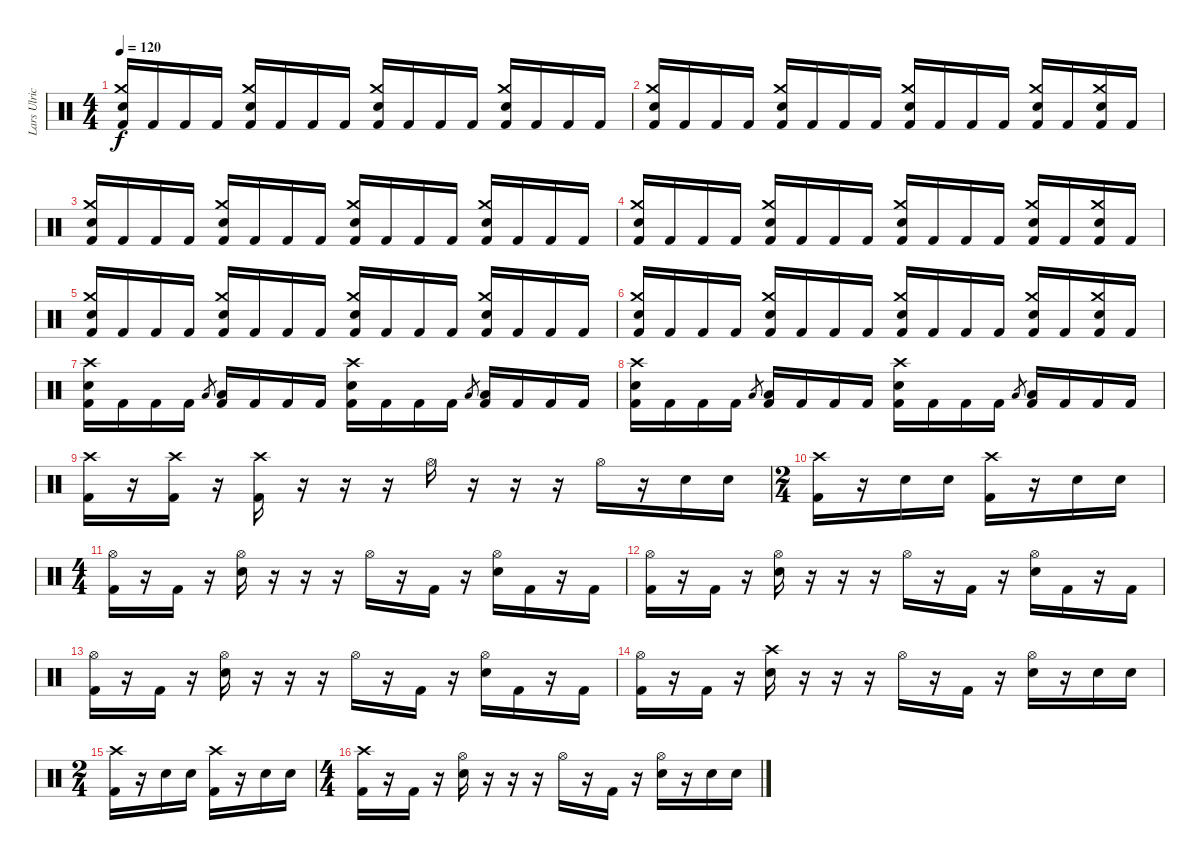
\track ("Lars Ulrich" "Lars Ulric") {instrument percussion}
\staff {score}
\articulation defaults
\ts (4 4)
\tempo 120
\clef neutral
\ks c
("Electric Snare (hit)" "Crash medium (hit)" "Kick (hit) 2").16{dy f} "Kick (hit) 2".16 "Kick (hit) 2".16 "Kick (hit) 2".16 ("Electric Snare (hit)" "Crash medium (hit)" "Kick (hit) 2").16 "Kick (hit) 2".16 "Kick (hit) 2".16 "Kick (hit) 2".16 ("Electric Snare (hit)" "Crash medium (hit)" "Kick (hit) 2").16 "Kick (hit) 2".16 "Kick (hit) 2".16 "Kick (hit) 2".16 ("Electric Snare (hit)" "Crash medium (hit)" "Kick (hit) 2").16 "Kick (hit) 2".16 "Kick (hit) 2".16 "Kick (hit) 2".16 |
("Electric Snare (hit)" "Crash medium (hit)" "Kick (hit) 2").16 "Kick (hit) 2".16 "Kick (hit) 2".16 "Kick (hit) 2".16 ("Electric Snare (hit)" "Crash medium (hit)" "Kick (hit) 2").16 "Kick (hit) 2".16 "Kick (hit) 2".16 "Kick (hit) 2".16 ("Electric Snare (hit)" "Crash medium (hit)" "Kick (hit) 2").16 "Kick (hit) 2".16 "Kick (hit) 2".16 "Kick (hit) 2".16 ("Electric Snare (hit)" "Crash medium (hit)" "Kick (hit) 2").16 "Kick (hit) 2".16 ("Electric Snare (hit)" "Crash medium (hit)" "Kick (hit) 2").16 "Kick (hit) 2".16 |
("Electric Snare (hit)" "Crash medium (hit)" "Kick (hit) 2").16 "Kick (hit) 2".16 "Kick (hit) 2".16 "Kick (hit) 2".16 ("Electric Snare (hit)" "Crash medium (hit)" "Kick (hit) 2").16 "Kick (hit) 2".16 "Kick (hit) 2".16 "Kick (hit) 2".16 ("Electric Snare (hit)" "Crash medium (hit)" "Kick (hit) 2").16 "Kick (hit) 2".16 "Kick (hit) 2".16 "Kick (hit) 2".16 ("Electric Snare (hit)" "Crash medium (hit)" "Kick (hit) 2").16 "Kick (hit) 2".16 "Kick (hit) 2".16 "Kick (hit) 2".16 |
("Electric Snare (hit)" "Crash medium (hit)" "Kick (hit) 2").16 "Kick (hit) 2".16 "Kick (hit) 2".16 "Kick (hit) 2".16 ("Electric Snare (hit)" "Crash medium (hit)" "Kick (hit) 2").16 "Kick (hit) 2".16 "Kick (hit) 2".16 "Kick (hit) 2".16 ("Electric Snare (hit)" "Crash medium (hit)" "Kick (hit) 2").16 "Kick (hit) 2".16 "Kick (hit) 2".16 "Kick (hit) 2".16 ("Electric Snare (hit)" "Crash medium (hit)" "Kick (hit) 2").16 "Kick (hit) 2".16 ("Electric Snare (hit)" "Crash medium (hit)" "Kick (hit) 2").16 "Kick (hit) 2".16 |
("Electric Snare (hit)" "Crash medium (hit)" "Kick (hit) 2").16 "Kick (hit) 2".16 "Kick (hit) 2".16 "Kick (hit) 2".16 ("Electric Snare (hit)" "Crash medium (hit)" "Kick (hit) 2").16 "Kick (hit) 2".16 "Kick (hit) 2".16 "Kick (hit) 2".16 ("Electric Snare (hit)" "Crash medium (hit)" "Kick (hit) 2").16 "Kick (hit) 2".16 "Kick (hit) 2".16 "Kick (hit) 2".16 ("Electric Snare (hit)" "Crash medium (hit)" "Kick (hit) 2").16 "Kick (hit) 2".16 "Kick (hit) 2".16 "Kick (hit) 2".16 |
("Electric Snare (hit)" "Crash medium (hit)" "Kick (hit) 2").16 "Kick (hit) 2".16 "Kick (hit) 2".16 "Kick (hit) 2".16 ("Electric Snare (hit)" "Crash medium (hit)" "Kick (hit) 2").16 "Kick (hit) 2".16 "Kick (hit) 2".16 "Kick (hit) 2".16 ("Electric Snare (hit)" "Crash medium (hit)" "Kick (hit) 2").16 "Kick (hit) 2".16 "Kick (hit) 2".16 "Kick (hit) 2".16 ("Electric Snare (hit)" "Crash medium (hit)" "Kick (hit) 2").16 "Kick (hit) 2".16 ("Electric Snare (hit)" "Crash medium (hit)" "Kick (hit) 2").16 "Kick (hit) 2".16 |
("Crash high (hit)" "Electric Snare (hit)" "Kick (hit) 2").16 "Kick (hit) 2".16 "Kick (hit) 2".16 "Kick (hit) 2".16 "Low Tom (hit)".8{gr} ("Low Tom (hit)" "Kick (hit) 2").16 "Kick (hit) 2".16 "Kick (hit) 2".16 "Kick (hit) 2".16 ("Crash high (hit)" "Electric Snare (hit)" "Kick (hit) 2").16 "Kick (hit) 2".16 "Kick (hit) 2".16 "Kick (hit) 2".16 "Low Tom (hit)".8{gr} ("Low Tom (hit)" "Kick (hit) 2").16 "Kick (hit) 2".16 "Kick (hit) 2".16 "Kick (hit) 2".16 |
("Crash high (hit)" "Electric Snare (hit)" "Kick (hit) 2").16 "Kick (hit) 2".16 "Kick (hit) 2".16 "Kick (hit) 2".16 "Low Tom (hit)".8{gr} ("Low Tom (hit)" "Kick (hit) 2").16 "Kick (hit) 2".16 "Kick (hit) 2".16 "Kick (hit) 2".16 ("Crash high (hit)" "Electric Snare (hit)" "Kick (hit) 2").16 "Kick (hit) 2".16 "Kick (hit) 2".16 "Kick (hit) 2".16 "Low Tom (hit)".8{gr} ("Low Tom (hit)" "Kick (hit) 2").16 "Kick (hit) 2".16 "Kick (hit) 2".16 "Kick (hit) 2".16 |
("Crash high (hit)" "Kick (hit) 2").16 r.16 ("Crash high (hit)" "Kick (hit) 2").16 r.16 ("Crash high (hit)" "Kick (hit) 2").16 r.16 r.16 r.16 "Hi-Hat (open)".16 r.16 r.16 r.16 "Hi-Hat (open)".16 r.16 "Electric Snare (hit)".16 "Electric Snare (hit)".16 |
\ts (2 4)
("Crash high (hit)" "Kick (hit) 2").16 r.16 "Electric Snare (hit)".16 "Electric Snare (hit)".16 ("Crash high (hit)" "Kick (hit) 2").16 r.16 "Electric Snare (hit)".16 "Electric Snare (hit)".16 |
\ts (4 4)
("Hi-Hat (open)" "Kick (hit) 2").16 r.16 "Kick (hit) 2".16 r.16 ("Electric Snare (hit)" "Hi-Hat (open)").16 r.16 r.16 r.16 "Hi-Hat (open)".16 r.16 "Kick (hit) 2".16 r.16 ("Electric Snare (hit)" "Hi-Hat (open)").16 "Kick (hit) 2".16 r.16 "Kick (hit) 2".16 |
("Hi-Hat (open)" "Kick (hit) 2").16 r.16 "Kick (hit) 2".16 r.16 ("Electric Snare (hit)" "Hi-Hat (open)").16 r.16 r.16 r.16 "Hi-Hat (open)".16 r.16 "Kick (hit) 2".16 r.16 ("Electric Snare (hit)" "Hi-Hat (open)").16 "Kick (hit) 2".16 r.16 "Kick (hit) 2".16 |
("Hi-Hat (open)" "Kick (hit) 2").16 r.16 "Kick (hit) 2".16 r.16 ("Electric Snare (hit)" "Hi-Hat (open)").16 r.16 r.16 r.16 "Hi-Hat (open)".16 r.16 "Kick (hit) 2".16 r.16 ("Electric Snare (hit)" "Hi-Hat (open)").16 "Kick (hit) 2".16 r.16 "Kick (hit) 2".16 |
("Hi-Hat (open)" "Kick (hit) 2").16 r.16 "Kick (hit) 2".16 r.16 ("Crash high (hit)" "Electric Snare (hit)").16 r.16 r.16 r.16 "Hi-Hat (open)".16 r.16 "Kick (hit) 2".16 r.16 ("Electric Snare (hit)" "Hi-Hat (open)").16 r.16 "Electric Snare (hit)".16 "Electric Snare (hit)".16 |
\ts (2 4)
("Crash high (hit)" "Kick (hit) 2").16 r.16 "Electric Snare (hit)".16 "Electric Snare (hit)".16 ("Crash high (hit)" "Kick (hit) 2").16 r.16 "Electric Snare (hit)".16 "Electric Snare (hit)".16 |
\ts (4 4)
("Crash high (hit)" "Kick (hit) 2").16 r.16 "Kick (hit) 2".16 r.16 ("Electric Snare (hit)" "Hi-Hat (open)").16 r.16 r.16 r.16 "Hi-Hat (open)".16 r.16 "Kick (hit) 2".16 r.16 ("Electric Snare (hit)" "Hi-Hat (open)").16 r.16 "Electric Snare (hit)".16 "Electric Snare (hit)".16
